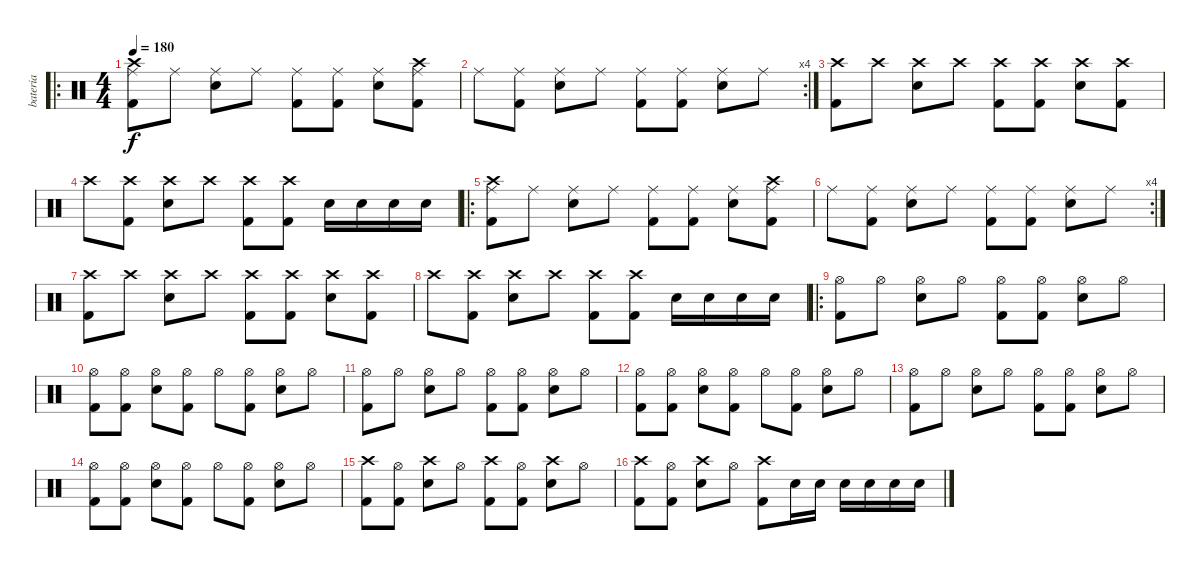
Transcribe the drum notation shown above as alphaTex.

\track ("bateria" "bateria") {instrument percussion}
\staff {score}
\articulation defaults
\ro
\ts (4 4)
\tempo 180
\clef neutral
\ks c
("Ride (middle)" "Kick (hit) 2" "Crash high (hit)").8{dy f} "Ride (middle)".8 ("Ride (middle)" "Electric Snare (hit)").8 "Ride (middle)".8 ("Ride (middle)" "Kick (hit) 2").8 ("Ride (middle)" "Kick (hit) 2").8 ("Ride (middle)" "Electric Snare (hit)").8 ("Ride (middle)" "Kick (hit) 2" "Crash high (hit)").8 |
\rc 4 "Ride (middle)".8
("Ride (middle)" "Kick (hit) 2").8 ("Ride (middle)" "Electric Snare (hit)").8 "Ride (middle)".8 ("Ride (middle)" "Kick (hit) 2").8 ("Ride (middle)" "Kick (hit) 2").8 ("Ride (middle)" "Electric Snare (hit)").8 "Ride (middle)".8 |
("Crash high (hit)" "Kick (hit) 2").8 "Crash high (hit)"{x}.8 ("Crash high (hit)" "Electric Snare (hit)").8 "Crash high (hit)"{x}.8 ("Crash high (hit)" "Kick (hit) 2").8 ("Crash high (hit)"{x} "Kick (hit) 2").8 ("Crash high (hit)" "Electric Snare (hit)").8 ("Crash high (hit)"{x} "Kick (hit) 2").8 |
"Crash high (hit)".8 ("Crash high (hit)"{x} "Kick (hit) 2").8 ("Crash high (hit)" "Electric Snare (hit)").8 "Crash high (hit)"{x}.8 ("Crash high (hit)" "Kick (hit) 2").8 ("Crash high (hit)"{x} "Kick (hit) 2").8 "Electric Snare (hit)".16 "Electric Snare (hit)".16 "Electric Snare (hit)".16 "Electric Snare (hit)".16 |
\ro
("Ride (middle)" "Kick (hit) 2" "Crash high (hit)").8 "Ride (middle)".8 ("Ride (middle)" "Electric Snare (hit)").8 "Ride (middle)".8 ("Ride (middle)" "Kick (hit) 2").8 ("Ride (middle)" "Kick (hit) 2").8 ("Ride (middle)" "Electric Snare (hit)").8 ("Ride (middle)" "Kick (hit) 2" "Crash high (hit)").8 |
\rc 4 "Ride (middle)".8
("Ride (middle)" "Kick (hit) 2").8 ("Ride (middle)" "Electric Snare (hit)").8 "Ride (middle)".8 ("Ride (middle)" "Kick (hit) 2").8 ("Ride (middle)" "Kick (hit) 2").8 ("Ride (middle)" "Electric Snare (hit)").8 "Ride (middle)".8 |
("Crash high (hit)" "Kick (hit) 2").8 "Crash high (hit)"{x}.8 ("Crash high (hit)" "Electric Snare (hit)").8 "Crash high (hit)"{x}.8 ("Crash high (hit)" "Kick (hit) 2").8 ("Crash high (hit)"{x} "Kick (hit) 2").8 ("Crash high (hit)" "Electric Snare (hit)").8 ("Crash high (hit)"{x} "Kick (hit) 2").8 |
"Crash high (hit)".8 ("Crash high (hit)"{x} "Kick (hit) 2").8 ("Crash high (hit)" "Electric Snare (hit)").8 "Crash high (hit)"{x}.8 ("Crash high (hit)" "Kick (hit) 2").8 ("Crash high (hit)"{x} "Kick (hit) 2").8 "Electric Snare (hit)".16 "Electric Snare (hit)".16 "Electric Snare (hit)".16 "Electric Snare (hit)".16 |
\ro
("Hi-Hat (open)" "Kick (hit) 2").8 "Hi-Hat (open)"{x}.8 ("Hi-Hat (open)" "Electric Snare (hit)").8 "Hi-Hat (open)"{x}.8 ("Hi-Hat (open)" "Kick (hit) 2").8 ("Hi-Hat (open)"{x} "Kick (hit) 2").8 ("Hi-Hat (open)" "Electric Snare (hit)").8 "Hi-Hat (open)"{x}.8 |
("Hi-Hat (open)" "Kick (hit) 2").8 ("Hi-Hat (open)"{x} "Kick (hit) 2").8 ("Hi-Hat (open)" "Electric Snare (hit)").8 ("Hi-Hat (open)"{x} "Kick (hit) 2").8 "Hi-Hat (open)".8 ("Hi-Hat (open)"{x} "Kick (hit) 2").8 ("Hi-Hat (open)" "Electric Snare (hit)").8 "Hi-Hat (open)"{x}.8 |
("Hi-Hat (open)" "Kick (hit) 2").8 "Hi-Hat (open)"{x}.8 ("Hi-Hat (open)" "Electric Snare (hit)").8 "Hi-Hat (open)"{x}.8 ("Hi-Hat (open)" "Kick (hit) 2").8 ("Hi-Hat (open)"{x} "Kick (hit) 2").8 ("Hi-Hat (open)" "Electric Snare (hit)").8 "Hi-Hat (open)"{x}.8 |
("Hi-Hat (open)" "Kick (hit) 2").8 ("Hi-Hat (open)"{x} "Kick (hit) 2").8 ("Hi-Hat (open)" "Electric Snare (hit)").8 ("Hi-Hat (open)"{x} "Kick (hit) 2").8 "Hi-Hat (open)".8 ("Hi-Hat (open)"{x} "Kick (hit) 2").8 ("Hi-Hat (open)" "Electric Snare (hit)").8 "Hi-Hat (open)"{x}.8 |
("Hi-Hat (open)" "Kick (hit) 2").8 "Hi-Hat (open)"{x}.8 ("Hi-Hat (open)" "Electric Snare (hit)").8 "Hi-Hat (open)"{x}.8 ("Hi-Hat (open)" "Kick (hit) 2").8 ("Hi-Hat (open)"{x} "Kick (hit) 2").8 ("Hi-Hat (open)" "Electric Snare (hit)").8 "Hi-Hat (open)"{x}.8 |
("Hi-Hat (open)" "Kick (hit) 2").8 ("Hi-Hat (open)"{x} "Kick (hit) 2").8 ("Hi-Hat (open)" "Electric Snare (hit)").8 ("Hi-Hat (open)"{x} "Kick (hit) 2").8 "Hi-Hat (open)".8 ("Hi-Hat (open)"{x} "Kick (hit) 2").8 ("Hi-Hat (open)" "Electric Snare (hit)").8 "Hi-Hat (open)"{x}.8 |
("Crash high (hit)" "Kick (hit) 2").8 ("Hi-Hat (open)"{x} "Kick (hit) 2").8 ("Crash high (hit)" "Electric Snare (hit)").8 "Hi-Hat (open)"{x}.8 ("Crash high (hit)" "Kick (hit) 2").8 ("Hi-Hat (open)"{x} "Kick (hit) 2").8 ("Crash high (hit)" "Electric Snare (hit)").8 "Hi-Hat (open)"{x}.8 |
("Crash high (hit)" "Kick (hit) 2").8 ("Hi-Hat (open)"{x} "Kick (hit) 2").8 ("Crash high (hit)" "Electric Snare (hit)").8 "Hi-Hat (open)"{x}.8 ("Crash high (hit)" "Kick (hit) 2").8 "Electric Snare (hit)".16 "Electric Snare (hit)".16 "Electric Snare (hit)".16 "Electric Snare (hit)".16 "Electric Snare (hit)".16 "Electric Snare (hit)".16
